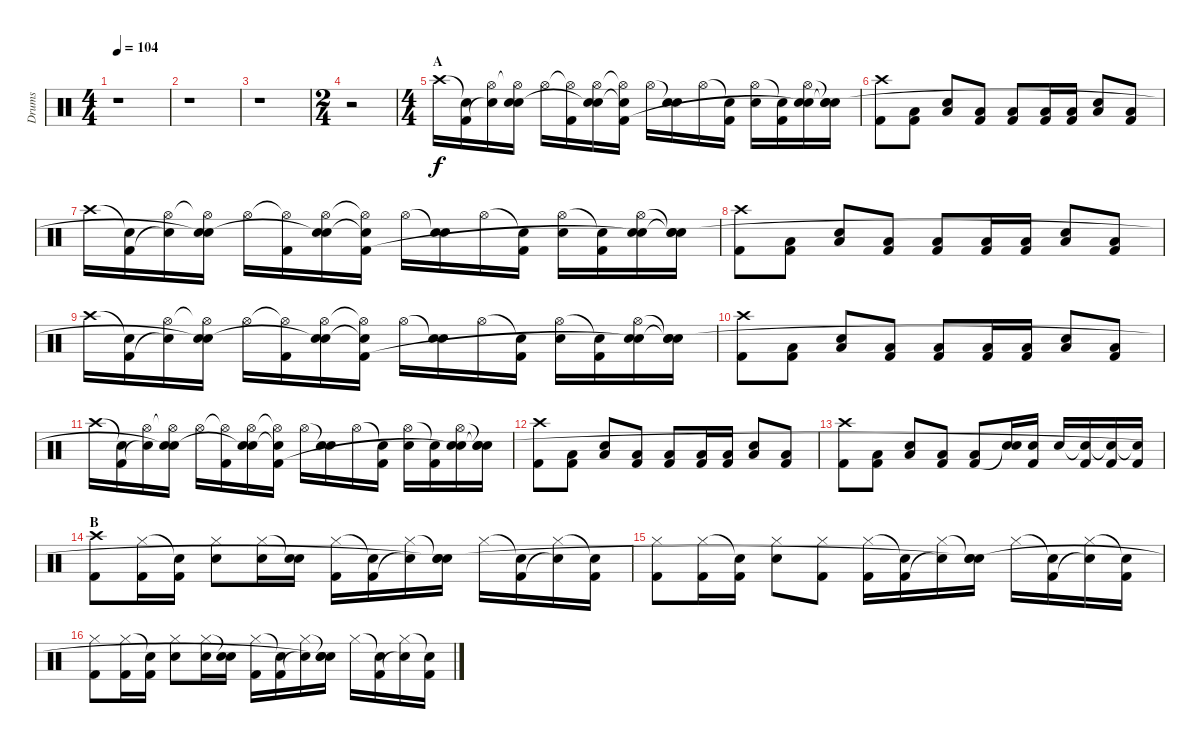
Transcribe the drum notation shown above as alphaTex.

\track ("Drums" "Drums") {instrument percussion}
\staff {score}
\articulation defaults
\ts (4 4)
\tempo 104
\clef neutral
\ks c
r.1{dy f} |
r.1 |
r.1 |
\ts (2 4)
r.2 |
\ts (4 4)
\section ("" "A")
"Crash high (hit)".16 ("Snare (hit)"{t} "Kick (hit) 2").16 ("Hi-Hat (open)" "Snare (hit)"{t}).16 ("Hi-Hat (open)"{t} "Snare (hit) 2" "Snare (hit)").16 "Hi-Hat (open)".16 ("Hi-Hat (open)"{t} "Kick (hit) 2").16 ("Hi-Hat (open)" "Snare (hit) 2" "Snare (hit)"{t}).16 ("Hi-Hat (open)"{t} "Snare (hit)"{t} "Kick (hit) 2").16 "Hi-Hat (open)".16 ("Snare (hit)"{t} "Snare (hit) 2").16 "Hi-Hat (open)".16 ("Snare (hit)"{t} "Kick (hit) 2").16 ("Hi-Hat (open)" "Snare (hit) 2").16 ("Snare (hit)"{t} "Kick (hit) 2").16 ("Hi-Hat (open)" "Snare (hit) 2" "Snare (hit)"{t}).16 ("Snare (hit)"{t} "Snare (hit) 2" "Snare (hit)"{t}).16 |
("Crash high (hit)" "Kick (hit) 2").8 ("Low Tom (hit)" "Kick (hit) 2").8 ("Low Tom (hit)" "Snare (hit) 2").8 ("Low Tom (hit)" "Kick (hit) 2").8 ("Low Tom (hit)" "Kick (hit) 2").8 ("Low Tom (hit)" "Kick (hit) 2").16 ("Low Tom (hit)" "Kick (hit) 2").16 ("Low Tom (hit)" "Snare (hit) 2").8 ("Low Tom (hit)" "Kick (hit) 2").8 |
"Crash high (hit)".16 ("Snare (hit)"{t} "Kick (hit) 2").16 ("Hi-Hat (open)" "Snare (hit)"{t}).16 ("Hi-Hat (open)"{t} "Snare (hit) 2" "Snare (hit)"{t}).16 "Hi-Hat (open)".16 ("Hi-Hat (open)"{t} "Kick (hit) 2").16 ("Hi-Hat (open)" "Snare (hit) 2" "Snare (hit)"{t}).16 ("Hi-Hat (open)"{t} "Snare (hit)"{t} "Kick (hit) 2").16 "Hi-Hat (open)".16 ("Snare (hit)"{t} "Snare (hit) 2").16 "Hi-Hat (open)".16 ("Snare (hit)"{t} "Kick (hit) 2").16 ("Hi-Hat (open)" "Snare (hit) 2").16 ("Snare (hit)"{t} "Kick (hit) 2").16 ("Hi-Hat (open)" "Snare (hit) 2" "Snare (hit)"{t}).16 ("Snare (hit)"{t} "Snare (hit) 2" "Snare (hit)"{t}).16 |
("Crash high (hit)" "Kick (hit) 2").8 ("Low Tom (hit)" "Kick (hit) 2").8 ("Low Tom (hit)" "Snare (hit) 2").8 ("Low Tom (hit)" "Kick (hit) 2").8 ("Low Tom (hit)" "Kick (hit) 2").8 ("Low Tom (hit)" "Kick (hit) 2").16 ("Low Tom (hit)" "Kick (hit) 2").16 ("Low Tom (hit)" "Snare (hit) 2").8 ("Low Tom (hit)" "Kick (hit) 2").8 |
"Crash high (hit)".16 ("Snare (hit)"{t} "Kick (hit) 2").16 ("Hi-Hat (open)" "Snare (hit)"{t}).16 ("Hi-Hat (open)"{t} "Snare (hit) 2" "Snare (hit)"{t}).16 "Hi-Hat (open)".16 ("Hi-Hat (open)"{t} "Kick (hit) 2").16 ("Hi-Hat (open)" "Snare (hit) 2" "Snare (hit)"{t}).16 ("Hi-Hat (open)"{t} "Snare (hit)"{t} "Kick (hit) 2").16 "Hi-Hat (open)".16 ("Snare (hit)"{t} "Snare (hit) 2").16 "Hi-Hat (open)".16 ("Snare (hit)"{t} "Kick (hit) 2").16 ("Hi-Hat (open)" "Snare (hit) 2").16 ("Snare (hit)"{t} "Kick (hit) 2").16 ("Hi-Hat (open)" "Snare (hit) 2" "Snare (hit)"{t}).16 ("Snare (hit)"{t} "Snare (hit) 2" "Snare (hit)"{t}).16 |
("Crash high (hit)" "Kick (hit) 2").8 ("Low Tom (hit)" "Kick (hit) 2").8 ("Low Tom (hit)" "Snare (hit) 2").8 ("Low Tom (hit)" "Kick (hit) 2").8 ("Low Tom (hit)" "Kick (hit) 2").8 ("Low Tom (hit)" "Kick (hit) 2").16 ("Low Tom (hit)" "Kick (hit) 2").16 ("Low Tom (hit)" "Snare (hit) 2").8 ("Low Tom (hit)" "Kick (hit) 2").8 |
"Crash high (hit)".16 ("Snare (hit)"{t} "Kick (hit) 2").16 ("Hi-Hat (open)" "Snare (hit)"{t}).16 ("Hi-Hat (open)"{t} "Snare (hit) 2" "Snare (hit)"{t}).16 "Hi-Hat (open)".16 ("Hi-Hat (open)"{t} "Kick (hit) 2").16 ("Hi-Hat (open)" "Snare (hit) 2" "Snare (hit)"{t}).16 ("Hi-Hat (open)"{t} "Snare (hit)"{t} "Kick (hit) 2").16 "Hi-Hat (open)".16 ("Snare (hit)"{t} "Snare (hit) 2").16 "Hi-Hat (open)".16 ("Snare (hit)"{t} "Kick (hit) 2").16 ("Hi-Hat (open)" "Snare (hit) 2").16 ("Snare (hit)"{t} "Kick (hit) 2").16 ("Hi-Hat (open)" "Snare (hit) 2" "Snare (hit)"{t}).16 ("Snare (hit)"{t} "Snare (hit) 2" "Snare (hit)"{t}).16 |
("Crash high (hit)" "Kick (hit) 2").8 ("Low Tom (hit)" "Kick (hit) 2").8 ("Low Tom (hit)" "Snare (hit) 2").8 ("Low Tom (hit)" "Kick (hit) 2").8 ("Low Tom (hit)" "Kick (hit) 2").8 ("Low Tom (hit)" "Kick (hit) 2").16 ("Low Tom (hit)" "Kick (hit) 2").16 ("Low Tom (hit)" "Snare (hit) 2").8 ("Low Tom (hit)" "Kick (hit) 2").8 |
("Crash high (hit)" "Kick (hit) 2").8 ("Low Tom (hit)" "Kick (hit) 2").8 ("Low Tom (hit)" "Snare (hit) 2").8 ("Low Tom (hit)" "Kick (hit) 2").8 ("Low Tom (hit)" "Kick (hit) 2").8 ("Snare (hit) 2" "Snare (hit)"{t}).16 ("Snare (hit) 2" "Kick (hit) 2").16 "Snare (hit) 2".16 ("Snare (hit)"{t} "Kick (hit) 2").16 ("Snare (hit)"{t} "Kick (hit) 2").16 ("Snare (hit)"{t} "Kick (hit) 2").16 |
\section ("" "B")
("Crash high (hit)" "Kick (hit) 2").8 ("Hi-Hat (closed)" "Kick (hit) 2").16 ("Snare (hit)"{t} "Kick (hit) 2").16 ("Hi-Hat (closed)" "Snare (hit) 2").8 ("Hi-Hat (closed)" "Snare (hit) 2").16 ("Snare (hit)"{t} "Snare (hit) 2").16 ("Hi-Hat (closed)" "Kick (hit) 2").16 ("Snare (hit)"{t} "Kick (hit) 2").16 ("Hi-Hat (closed)" "Snare (hit)"{t}).16 ("Snare (hit)"{t} "Snare (hit) 2" "Snare (hit)"{t}).16 "Hi-Hat (closed)".16 ("Snare (hit)"{t} "Kick (hit) 2").16 ("Hi-Hat (closed)" "Snare (hit)"{t}).16 ("Snare (hit)"{t} "Kick (hit) 2").16 |
("Hi-Hat (closed)" "Kick (hit) 2").8 ("Hi-Hat (closed)" "Kick (hit) 2").16 ("Snare (hit)"{t} "Kick (hit) 2").16 ("Hi-Hat (closed)" "Snare (hit) 2").8 ("Hi-Hat (closed)" "Kick (hit) 2").8 ("Hi-Hat (closed)" "Kick (hit) 2").16 ("Snare (hit)"{t} "Kick (hit) 2").16 ("Hi-Hat (closed)" "Snare (hit)"{t}).16 ("Snare (hit)"{t} "Snare (hit) 2" "Snare (hit)"{t}).16 "Hi-Hat (closed)".16 ("Snare (hit)"{t} "Kick (hit) 2").16 ("Hi-Hat (closed)" "Snare (hit)"{t}).16 ("Snare (hit)"{t} "Kick (hit) 2").16 |
("Hi-Hat (closed)" "Kick (hit) 2").8 ("Hi-Hat (closed)" "Kick (hit) 2").16 ("Snare (hit)"{t} "Kick (hit) 2").16 ("Hi-Hat (closed)" "Snare (hit) 2").8 ("Hi-Hat (closed)" "Snare (hit) 2").16 ("Snare (hit)"{t} "Snare (hit) 2").16 ("Hi-Hat (closed)" "Kick (hit) 2").16 ("Snare (hit)"{t} "Kick (hit) 2").16 ("Hi-Hat (closed)" "Snare (hit)"{t}).16 ("Snare (hit)"{t} "Snare (hit) 2" "Snare (hit)"{t}).16 "Hi-Hat (closed)".16 ("Snare (hit)"{t} "Kick (hit) 2").16 ("Hi-Hat (closed)" "Snare (hit)"{t}).16 ("Snare (hit)"{t} "Kick (hit) 2").16
